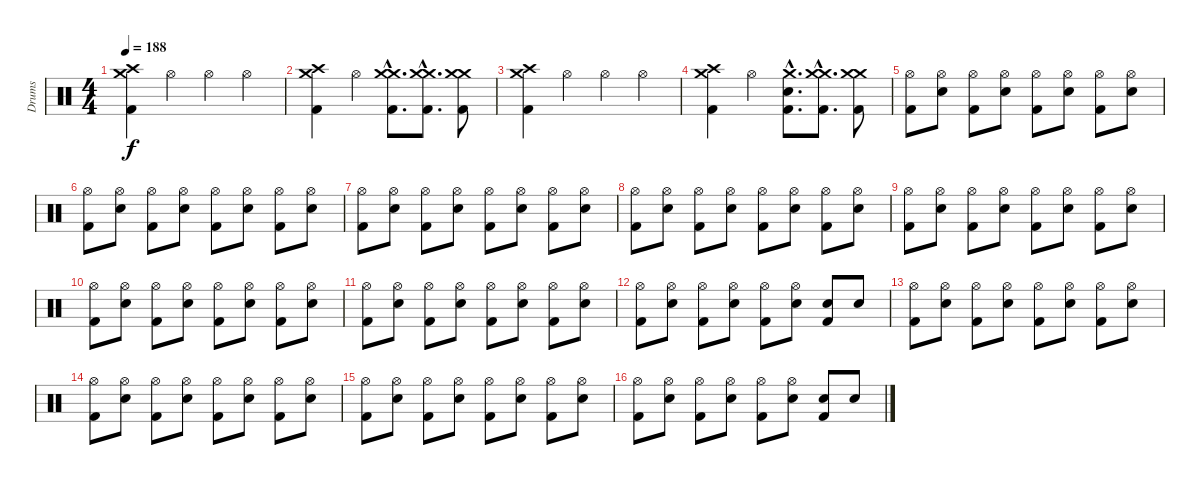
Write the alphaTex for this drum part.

\track ("Drums" "Drums") {instrument percussion}
\staff {score}
\articulation defaults
\ts (4 4)
\tempo 188
\clef neutral
\ks c
("Crash high (hit)" "Crash medium (hit)" "Kick (hit) 2").4{dy f} "Hi-Hat (open)".4 "Hi-Hat (open)".4 "Hi-Hat (open)".4 |
("Crash high (hit)" "Crash medium (hit)" "Kick (hit) 2").4 "Hi-Hat (open)".4 ("Crash medium (hit)"{hac} "Crash medium (hit)"{hac} "Kick (hit) 2"{hac}).8{d} ("Crash medium (hit)"{hac} "Crash medium (hit)"{hac} "Kick (hit) 2"{hac}).8{d} ("Crash medium (hit)" "Crash medium (hit)" "Kick (hit) 2").8 |
("Crash high (hit)" "Crash medium (hit)" "Kick (hit) 2").4 "Hi-Hat (open)".4 "Hi-Hat (open)".4 "Hi-Hat (open)".4 |
("Crash high (hit)" "Crash medium (hit)" "Kick (hit) 2").4 "Hi-Hat (open)".4 ("Crash medium (hit)"{hac} "Snare (hit) 2"{hac} "Kick (hit) 2"{hac}).8{d} ("Crash medium (hit)"{hac} "Crash medium (hit)"{hac} "Kick (hit) 2"{hac}).8{d} ("Crash medium (hit)" "Crash medium (hit)" "Kick (hit) 2").8 |
("Hi-Hat (open)" "Kick (hit) 2").8 ("Hi-Hat (open)" "Snare (hit) 2").8 ("Hi-Hat (open)" "Kick (hit) 2").8 ("Hi-Hat (open)" "Snare (hit) 2").8 ("Hi-Hat (open)" "Kick (hit) 2").8 ("Hi-Hat (open)" "Snare (hit) 2").8 ("Hi-Hat (open)" "Kick (hit) 2").8 ("Hi-Hat (open)" "Snare (hit) 2").8 |
("Hi-Hat (open)" "Kick (hit) 2").8 ("Hi-Hat (open)" "Snare (hit) 2").8 ("Hi-Hat (open)" "Kick (hit) 2").8 ("Hi-Hat (open)" "Snare (hit) 2").8 ("Hi-Hat (open)" "Kick (hit) 2").8 ("Hi-Hat (open)" "Snare (hit) 2").8 ("Hi-Hat (open)" "Kick (hit) 2").8 ("Hi-Hat (open)" "Snare (hit) 2").8 |
("Hi-Hat (open)" "Kick (hit) 2").8 ("Hi-Hat (open)" "Snare (hit) 2").8 ("Hi-Hat (open)" "Kick (hit) 2").8 ("Hi-Hat (open)" "Snare (hit) 2").8 ("Hi-Hat (open)" "Kick (hit) 2").8 ("Hi-Hat (open)" "Snare (hit) 2").8 ("Hi-Hat (open)" "Kick (hit) 2").8 ("Hi-Hat (open)" "Snare (hit) 2").8 |
("Hi-Hat (open)" "Kick (hit) 2").8 ("Hi-Hat (open)" "Snare (hit) 2").8 ("Hi-Hat (open)" "Kick (hit) 2").8 ("Hi-Hat (open)" "Snare (hit) 2").8 ("Hi-Hat (open)" "Kick (hit) 2").8 ("Hi-Hat (open)" "Snare (hit) 2").8 ("Hi-Hat (open)" "Kick (hit) 2").8 ("Hi-Hat (open)" "Snare (hit) 2").8 |
("Hi-Hat (open)" "Kick (hit) 2").8 ("Hi-Hat (open)" "Snare (hit) 2").8 ("Hi-Hat (open)" "Kick (hit) 2").8 ("Hi-Hat (open)" "Snare (hit) 2").8 ("Hi-Hat (open)" "Kick (hit) 2").8 ("Hi-Hat (open)" "Snare (hit) 2").8 ("Hi-Hat (open)" "Kick (hit) 2").8 ("Hi-Hat (open)" "Snare (hit) 2").8 |
("Hi-Hat (open)" "Kick (hit) 2").8 ("Hi-Hat (open)" "Snare (hit) 2").8 ("Hi-Hat (open)" "Kick (hit) 2").8 ("Hi-Hat (open)" "Snare (hit) 2").8 ("Hi-Hat (open)" "Kick (hit) 2").8 ("Hi-Hat (open)" "Snare (hit) 2").8 ("Hi-Hat (open)" "Kick (hit) 2").8 ("Hi-Hat (open)" "Snare (hit) 2").8 |
("Hi-Hat (open)" "Kick (hit) 2").8 ("Hi-Hat (open)" "Snare (hit) 2").8 ("Hi-Hat (open)" "Kick (hit) 2").8 ("Hi-Hat (open)" "Snare (hit) 2").8 ("Hi-Hat (open)" "Kick (hit) 2").8 ("Hi-Hat (open)" "Snare (hit) 2").8 ("Hi-Hat (open)" "Kick (hit) 2").8 ("Hi-Hat (open)" "Snare (hit) 2").8 |
("Hi-Hat (open)" "Kick (hit) 2").8 ("Hi-Hat (open)" "Snare (hit) 2").8 ("Hi-Hat (open)" "Kick (hit) 2").8 ("Hi-Hat (open)" "Snare (hit) 2").8 ("Hi-Hat (open)" "Kick (hit) 2").8 ("Hi-Hat (open)" "Snare (hit) 2").8 ("Snare (hit) 2" "Kick (hit) 2").8 "Snare (hit) 2".8 |
("Hi-Hat (open)" "Kick (hit) 2").8 ("Hi-Hat (open)" "Snare (hit) 2").8 ("Hi-Hat (open)" "Kick (hit) 2").8 ("Hi-Hat (open)" "Snare (hit) 2").8 ("Hi-Hat (open)" "Kick (hit) 2").8 ("Hi-Hat (open)" "Snare (hit) 2").8 ("Hi-Hat (open)" "Kick (hit) 2").8 ("Hi-Hat (open)" "Snare (hit) 2").8 |
("Hi-Hat (open)" "Kick (hit) 2").8 ("Hi-Hat (open)" "Snare (hit) 2").8 ("Hi-Hat (open)" "Kick (hit) 2").8 ("Hi-Hat (open)" "Snare (hit) 2").8 ("Hi-Hat (open)" "Kick (hit) 2").8 ("Hi-Hat (open)" "Snare (hit) 2").8 ("Hi-Hat (open)" "Kick (hit) 2").8 ("Hi-Hat (open)" "Snare (hit) 2").8 |
("Hi-Hat (open)" "Kick (hit) 2").8 ("Hi-Hat (open)" "Snare (hit) 2").8 ("Hi-Hat (open)" "Kick (hit) 2").8 ("Hi-Hat (open)" "Snare (hit) 2").8 ("Hi-Hat (open)" "Kick (hit) 2").8 ("Hi-Hat (open)" "Snare (hit) 2").8 ("Hi-Hat (open)" "Kick (hit) 2").8 ("Hi-Hat (open)" "Snare (hit) 2").8 |
("Hi-Hat (open)" "Kick (hit) 2").8 ("Hi-Hat (open)" "Snare (hit) 2").8 ("Hi-Hat (open)" "Kick (hit) 2").8 ("Hi-Hat (open)" "Snare (hit) 2").8 ("Hi-Hat (open)" "Kick (hit) 2").8 ("Hi-Hat (open)" "Snare (hit) 2").8 ("Snare (hit) 2" "Kick (hit) 2").8 "Snare (hit) 2".8
